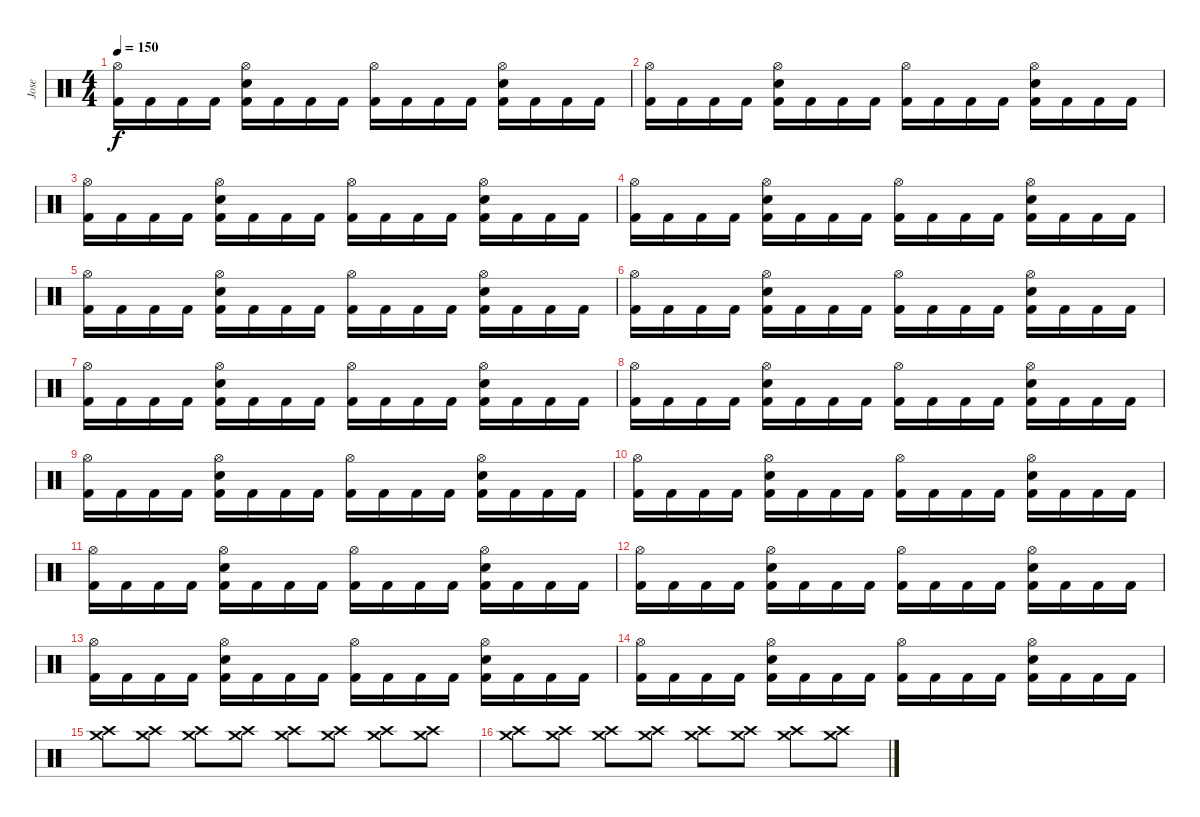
\track ("Jose" "Jose") {instrument percussion}
\staff {score}
\articulation defaults
\ts (4 4)
\tempo 150
\clef neutral
\ks c
("Hi-Hat (open)" "Kick (hit) 2").16{dy f} "Kick (hit) 2".16 "Kick (hit) 2".16 "Kick (hit) 2".16 ("Kick (hit) 2" "Snare (hit) 2" "Hi-Hat (open)").16 "Kick (hit) 2".16 "Kick (hit) 2".16 "Kick (hit) 2".16 ("Kick (hit) 2" "Hi-Hat (open)").16 "Kick (hit) 2".16 "Kick (hit) 2".16 "Kick (hit) 2".16 ("Kick (hit) 2" "Snare (hit) 2" "Hi-Hat (open)").16 "Kick (hit) 2".16 "Kick (hit) 2".16 "Kick (hit) 2".16 |
("Hi-Hat (open)" "Kick (hit) 2").16 "Kick (hit) 2".16 "Kick (hit) 2".16 "Kick (hit) 2".16 ("Kick (hit) 2" "Snare (hit) 2" "Hi-Hat (open)").16 "Kick (hit) 2".16 "Kick (hit) 2".16 "Kick (hit) 2".16 ("Kick (hit) 2" "Hi-Hat (open)").16 "Kick (hit) 2".16 "Kick (hit) 2".16 "Kick (hit) 2".16 ("Kick (hit) 2" "Snare (hit) 2" "Hi-Hat (open)").16 "Kick (hit) 2".16 "Kick (hit) 2".16 "Kick (hit) 2".16 |
("Hi-Hat (open)" "Kick (hit) 2").16 "Kick (hit) 2".16 "Kick (hit) 2".16 "Kick (hit) 2".16 ("Kick (hit) 2" "Snare (hit) 2" "Hi-Hat (open)").16 "Kick (hit) 2".16 "Kick (hit) 2".16 "Kick (hit) 2".16 ("Kick (hit) 2" "Hi-Hat (open)").16 "Kick (hit) 2".16 "Kick (hit) 2".16 "Kick (hit) 2".16 ("Kick (hit) 2" "Snare (hit) 2" "Hi-Hat (open)").16 "Kick (hit) 2".16 "Kick (hit) 2".16 "Kick (hit) 2".16 |
("Hi-Hat (open)" "Kick (hit) 2").16 "Kick (hit) 2".16 "Kick (hit) 2".16 "Kick (hit) 2".16 ("Kick (hit) 2" "Snare (hit) 2" "Hi-Hat (open)").16 "Kick (hit) 2".16 "Kick (hit) 2".16 "Kick (hit) 2".16 ("Kick (hit) 2" "Hi-Hat (open)").16 "Kick (hit) 2".16 "Kick (hit) 2".16 "Kick (hit) 2".16 ("Kick (hit) 2" "Snare (hit) 2" "Hi-Hat (open)").16 "Kick (hit) 2".16 "Kick (hit) 2".16 "Kick (hit) 2".16 |
("Hi-Hat (open)" "Kick (hit) 2").16 "Kick (hit) 2".16 "Kick (hit) 2".16 "Kick (hit) 2".16 ("Kick (hit) 2" "Snare (hit) 2" "Hi-Hat (open)").16 "Kick (hit) 2".16 "Kick (hit) 2".16 "Kick (hit) 2".16 ("Kick (hit) 2" "Hi-Hat (open)").16 "Kick (hit) 2".16 "Kick (hit) 2".16 "Kick (hit) 2".16 ("Kick (hit) 2" "Snare (hit) 2" "Hi-Hat (open)").16 "Kick (hit) 2".16 "Kick (hit) 2".16 "Kick (hit) 2".16 |
("Hi-Hat (open)" "Kick (hit) 2").16 "Kick (hit) 2".16 "Kick (hit) 2".16 "Kick (hit) 2".16 ("Kick (hit) 2" "Snare (hit) 2" "Hi-Hat (open)").16 "Kick (hit) 2".16 "Kick (hit) 2".16 "Kick (hit) 2".16 ("Kick (hit) 2" "Hi-Hat (open)").16 "Kick (hit) 2".16 "Kick (hit) 2".16 "Kick (hit) 2".16 ("Kick (hit) 2" "Snare (hit) 2" "Hi-Hat (open)").16 "Kick (hit) 2".16 "Kick (hit) 2".16 "Kick (hit) 2".16 |
("Hi-Hat (open)" "Kick (hit) 2").16 "Kick (hit) 2".16 "Kick (hit) 2".16 "Kick (hit) 2".16 ("Kick (hit) 2" "Snare (hit) 2" "Hi-Hat (open)").16 "Kick (hit) 2".16 "Kick (hit) 2".16 "Kick (hit) 2".16 ("Kick (hit) 2" "Hi-Hat (open)").16 "Kick (hit) 2".16 "Kick (hit) 2".16 "Kick (hit) 2".16 ("Kick (hit) 2" "Snare (hit) 2" "Hi-Hat (open)").16 "Kick (hit) 2".16 "Kick (hit) 2".16 "Kick (hit) 2".16 |
("Hi-Hat (open)" "Kick (hit) 2").16 "Kick (hit) 2".16 "Kick (hit) 2".16 "Kick (hit) 2".16 ("Kick (hit) 2" "Snare (hit) 2" "Hi-Hat (open)").16 "Kick (hit) 2".16 "Kick (hit) 2".16 "Kick (hit) 2".16 ("Kick (hit) 2" "Hi-Hat (open)").16 "Kick (hit) 2".16 "Kick (hit) 2".16 "Kick (hit) 2".16 ("Kick (hit) 2" "Snare (hit) 2" "Hi-Hat (open)").16 "Kick (hit) 2".16 "Kick (hit) 2".16 "Kick (hit) 2".16 |
("Hi-Hat (open)" "Kick (hit) 2").16 "Kick (hit) 2".16 "Kick (hit) 2".16 "Kick (hit) 2".16 ("Kick (hit) 2" "Snare (hit) 2" "Hi-Hat (open)").16 "Kick (hit) 2".16 "Kick (hit) 2".16 "Kick (hit) 2".16 ("Kick (hit) 2" "Hi-Hat (open)").16 "Kick (hit) 2".16 "Kick (hit) 2".16 "Kick (hit) 2".16 ("Kick (hit) 2" "Snare (hit) 2" "Hi-Hat (open)").16 "Kick (hit) 2".16 "Kick (hit) 2".16 "Kick (hit) 2".16 |
("Hi-Hat (open)" "Kick (hit) 2").16 "Kick (hit) 2".16 "Kick (hit) 2".16 "Kick (hit) 2".16 ("Kick (hit) 2" "Snare (hit) 2" "Hi-Hat (open)").16 "Kick (hit) 2".16 "Kick (hit) 2".16 "Kick (hit) 2".16 ("Kick (hit) 2" "Hi-Hat (open)").16 "Kick (hit) 2".16 "Kick (hit) 2".16 "Kick (hit) 2".16 ("Kick (hit) 2" "Snare (hit) 2" "Hi-Hat (open)").16 "Kick (hit) 2".16 "Kick (hit) 2".16 "Kick (hit) 2".16 |
("Hi-Hat (open)" "Kick (hit) 2").16 "Kick (hit) 2".16 "Kick (hit) 2".16 "Kick (hit) 2".16 ("Kick (hit) 2" "Snare (hit) 2" "Hi-Hat (open)").16 "Kick (hit) 2".16 "Kick (hit) 2".16 "Kick (hit) 2".16 ("Kick (hit) 2" "Hi-Hat (open)").16 "Kick (hit) 2".16 "Kick (hit) 2".16 "Kick (hit) 2".16 ("Kick (hit) 2" "Snare (hit) 2" "Hi-Hat (open)").16 "Kick (hit) 2".16 "Kick (hit) 2".16 "Kick (hit) 2".16 |
("Hi-Hat (open)" "Kick (hit) 2").16 "Kick (hit) 2".16 "Kick (hit) 2".16 "Kick (hit) 2".16 ("Kick (hit) 2" "Snare (hit) 2" "Hi-Hat (open)").16 "Kick (hit) 2".16 "Kick (hit) 2".16 "Kick (hit) 2".16 ("Kick (hit) 2" "Hi-Hat (open)").16 "Kick (hit) 2".16 "Kick (hit) 2".16 "Kick (hit) 2".16 ("Kick (hit) 2" "Snare (hit) 2" "Hi-Hat (open)").16 "Kick (hit) 2".16 "Kick (hit) 2".16 "Kick (hit) 2".16 |
("Hi-Hat (open)" "Kick (hit) 2").16 "Kick (hit) 2".16 "Kick (hit) 2".16 "Kick (hit) 2".16 ("Kick (hit) 2" "Snare (hit) 2" "Hi-Hat (open)").16 "Kick (hit) 2".16 "Kick (hit) 2".16 "Kick (hit) 2".16 ("Kick (hit) 2" "Hi-Hat (open)").16 "Kick (hit) 2".16 "Kick (hit) 2".16 "Kick (hit) 2".16 ("Kick (hit) 2" "Snare (hit) 2" "Hi-Hat (open)").16 "Kick (hit) 2".16 "Kick (hit) 2".16 "Kick (hit) 2".16 |
("Hi-Hat (open)" "Kick (hit) 2").16 "Kick (hit) 2".16 "Kick (hit) 2".16 "Kick (hit) 2".16 ("Kick (hit) 2" "Snare (hit) 2" "Hi-Hat (open)").16 "Kick (hit) 2".16 "Kick (hit) 2".16 "Kick (hit) 2".16 ("Kick (hit) 2" "Hi-Hat (open)").16 "Kick (hit) 2".16 "Kick (hit) 2".16 "Kick (hit) 2".16 ("Kick (hit) 2" "Snare (hit) 2" "Hi-Hat (open)").16 "Kick (hit) 2".16 "Kick (hit) 2".16 "Kick (hit) 2".16 |
("Crash high (hit)" "Crash medium (hit)").8 ("Crash high (hit)" "Crash medium (hit)").8 ("Crash high (hit)" "Crash medium (hit)").8 ("Crash high (hit)" "Crash medium (hit)").8 ("Crash high (hit)" "Crash medium (hit)").8 ("Crash high (hit)" "Crash medium (hit)").8 ("Crash high (hit)" "Crash medium (hit)").8 ("Crash high (hit)" "Crash medium (hit)").8 |
("Crash high (hit)" "Crash medium (hit)").8 ("Crash high (hit)" "Crash medium (hit)").8 ("Crash high (hit)" "Crash medium (hit)").8 ("Crash high (hit)" "Crash medium (hit)").8 ("Crash high (hit)" "Crash medium (hit)").8 ("Crash high (hit)" "Crash medium (hit)").8 ("Crash high (hit)" "Crash medium (hit)").8 ("Crash high (hit)" "Crash medium (hit)").8
